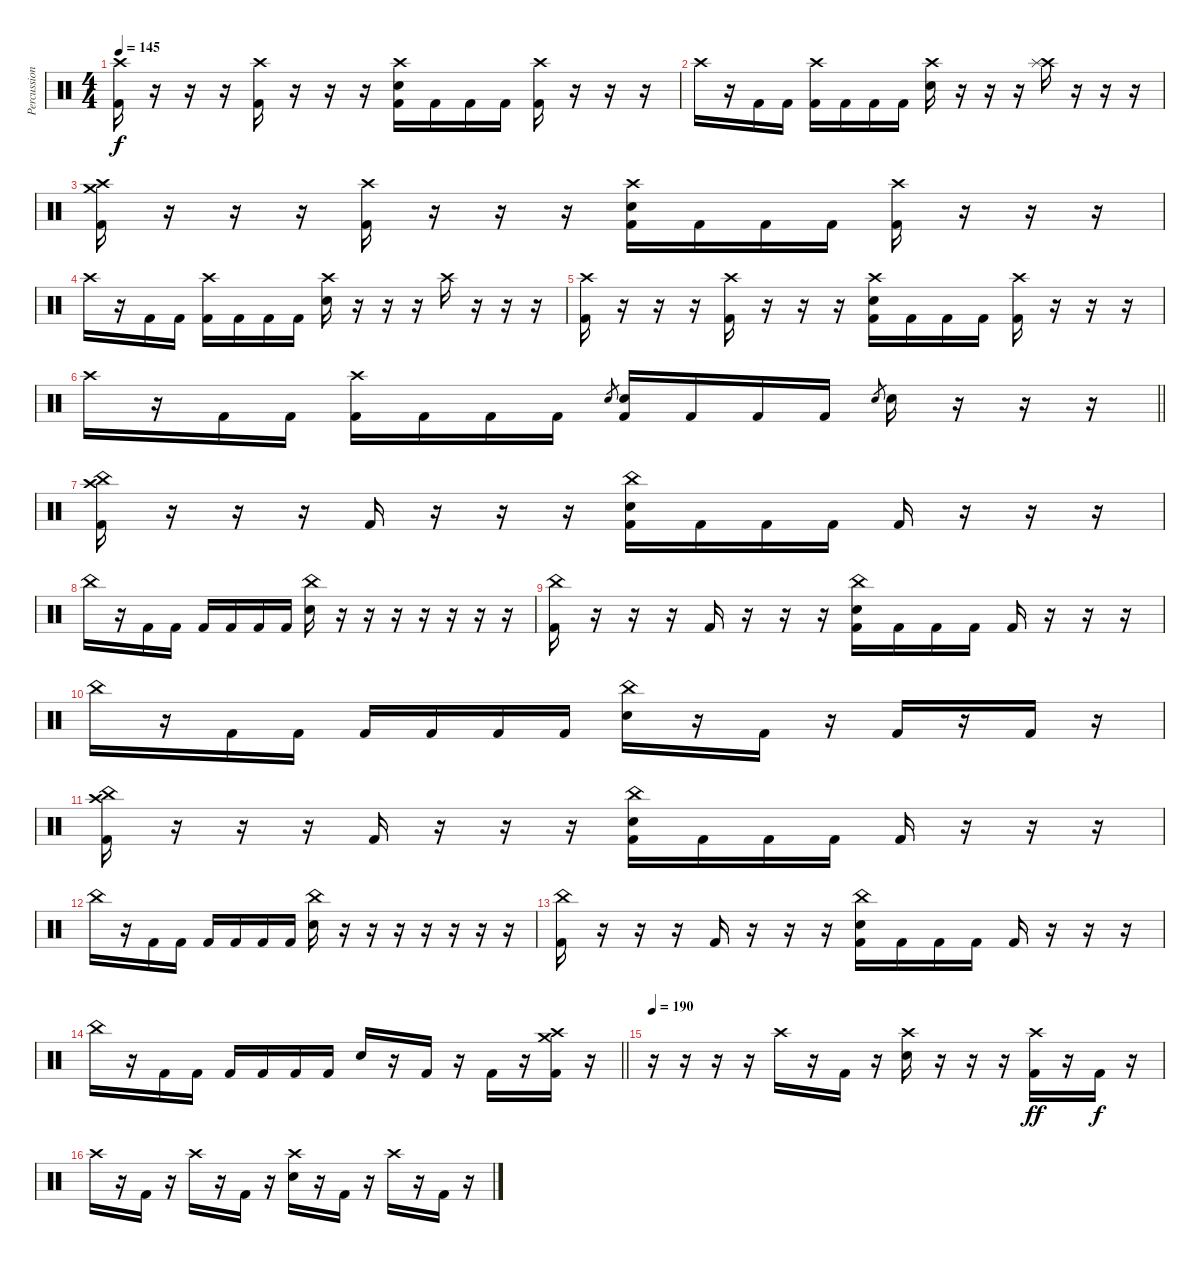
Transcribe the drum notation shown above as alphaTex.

\track ("Percussion" "Percussion") {instrument percussion}
\staff {score}
\articulation defaults
\ts (4 4)
\tempo 145
\clef neutral
\ks c
("Crash high (hit)" "Kick (hit) 2").16{dy f} r.16 r.16 r.16 ("Crash high (hit)" "Kick (hit) 2").16 r.16 r.16 r.16 ("Crash high (hit)" "Snare (hit) 2" "Kick (hit) 2").16 "Kick (hit) 2".16 "Kick (hit) 2".16 "Kick (hit) 2".16 ("Crash high (hit)" "Kick (hit) 2").16 r.16 r.16 r.16 |
"Crash high (hit)".16 r.16 "Kick (hit) 2".16 "Kick (hit) 2".16 ("Crash high (hit)" "Kick (hit) 2").16 "Kick (hit) 2".16 "Kick (hit) 2".16 "Kick (hit) 2".16 ("Crash high (hit)" "Snare (hit) 2").16 r.16 r.16 r.16 ("Crash high (hit)" "Splash (hit)").16 r.16 r.16 r.16 |
("Crash high (hit)" "Crash medium (hit)" "Kick (hit) 2").16 r.16 r.16 r.16 ("Crash high (hit)" "Kick (hit) 2").16 r.16 r.16 r.16 ("Crash high (hit)" "Snare (hit) 2" "Kick (hit) 2").16 "Kick (hit) 2".16 "Kick (hit) 2".16 "Kick (hit) 2".16 ("Crash high (hit)" "Kick (hit) 2").16 r.16 r.16 r.16 |
"Crash high (hit)".16 r.16 "Kick (hit) 2".16 "Kick (hit) 2".16 ("Crash high (hit)" "Kick (hit) 2").16 "Kick (hit) 2".16 "Kick (hit) 2".16 "Kick (hit) 2".16 ("Crash high (hit)" "Snare (hit) 2").16 r.16 r.16 r.16 "Crash high (hit)".16 r.16 r.16 r.16 |
("Crash high (hit)" "Kick (hit) 2").16 r.16 r.16 r.16 ("Crash high (hit)" "Kick (hit) 2").16 r.16 r.16 r.16 ("Crash high (hit)" "Snare (hit) 2" "Kick (hit) 2").16 "Kick (hit) 2".16 "Kick (hit) 2".16 "Kick (hit) 2".16 ("Crash high (hit)" "Kick (hit) 2").16 r.16 r.16 r.16 |
\barLineRight lightlight "Crash high (hit)".16
r.16 "Kick (hit) 2".16 "Kick (hit) 2".16 ("Crash high (hit)" "Kick (hit) 2").16 "Kick (hit) 2".16 "Kick (hit) 2".16 "Kick (hit) 2".16 "Snare (hit) 2".8{gr} ("Snare (hit) 2" "Kick (hit) 2").16 "Kick (hit) 2".16 "Kick (hit) 2".16 "Kick (hit) 2".16 "Snare (hit) 2".8{gr} "Snare (hit) 2".16 r.16 r.16 r.16 |
\section ("" "")
("China (hit)" "Crash high (hit)" "Kick (hit) 2").16 r.16 r.16 r.16 "Kick (hit) 2".16 r.16 r.16 r.16 ("China (hit)" "Snare (hit) 2" "Kick (hit) 2").16 "Kick (hit) 2".16 "Kick (hit) 2".16 "Kick (hit) 2".16 "Kick (hit) 2".16 r.16 r.16 r.16 |
"China (hit)".16 r.16 "Kick (hit) 2".16 "Kick (hit) 2".16 "Kick (hit) 2".16 "Kick (hit) 2".16 "Kick (hit) 2".16 "Kick (hit) 2".16 ("China (hit)" "Snare (hit) 2").16 r.16 r.16 r.16 r.16 r.16 r.16 r.16 |
("China (hit)" "Kick (hit) 2").16 r.16 r.16 r.16 "Kick (hit) 2".16 r.16 r.16 r.16 ("China (hit)" "Snare (hit) 2" "Kick (hit) 2").16 "Kick (hit) 2".16 "Kick (hit) 2".16 "Kick (hit) 2".16 "Kick (hit) 2".16 r.16 r.16 r.16 |
"China (hit)".16 r.16 "Kick (hit) 2".16 "Kick (hit) 2".16 "Kick (hit) 2".16 "Kick (hit) 2".16 "Kick (hit) 2".16 "Kick (hit) 2".16 ("China (hit)" "Snare (hit) 2").16 r.16 "Kick (hit) 2".16 r.16 "Kick (hit) 2".16 r.16 "Kick (hit) 2".16 r.16 |
("China (hit)" "Crash high (hit)" "Kick (hit) 2").16 r.16 r.16 r.16 "Kick (hit) 2".16 r.16 r.16 r.16 ("China (hit)" "Snare (hit) 2" "Kick (hit) 2").16 "Kick (hit) 2".16 "Kick (hit) 2".16 "Kick (hit) 2".16 "Kick (hit) 2".16 r.16 r.16 r.16 |
"China (hit)".16 r.16 "Kick (hit) 2".16 "Kick (hit) 2".16 "Kick (hit) 2".16 "Kick (hit) 2".16 "Kick (hit) 2".16 "Kick (hit) 2".16 ("China (hit)" "Snare (hit) 2").16 r.16 r.16 r.16 r.16 r.16 r.16 r.16 |
("China (hit)" "Kick (hit) 2").16 r.16 r.16 r.16 "Kick (hit) 2".16 r.16 r.16 r.16 ("China (hit)" "Snare (hit) 2" "Kick (hit) 2").16 "Kick (hit) 2".16 "Kick (hit) 2".16 "Kick (hit) 2".16 "Kick (hit) 2".16 r.16 r.16 r.16 |
\barLineRight lightlight "China (hit)".16
r.16 "Kick (hit) 2".16 "Kick (hit) 2".16 "Kick (hit) 2".16 "Kick (hit) 2".16 "Kick (hit) 2".16 "Kick (hit) 2".16 "Snare (hit) 2".16 r.16 "Kick (hit) 2".16 r.16 "Kick (hit) 2".16 r.16 ("Crash medium (hit)" "Crash high (hit)" "Kick (hit) 2").16 r.16 |
\section ("" "")
\tempo 190
r.16 r.16 r.16 r.16 "Crash high (hit)".16 r.16 "Kick (hit) 2".16 r.16 ("Crash high (hit)" "Snare (hit) 2").16 r.16 r.16 r.16 ("Crash high (hit)" "Kick (hit) 2").16{dy ff} r.16 "Kick (hit) 2".16{dy f} r.16 |
"Crash high (hit)".16 r.16 "Kick (hit) 2".16 r.16 "Crash high (hit)".16 r.16 "Kick (hit) 2".16 r.16 ("Crash high (hit)" "Snare (hit) 2").16 r.16 "Kick (hit) 2".16 r.16 "Crash high (hit)".16 r.16 "Kick (hit) 2".16 r.16
